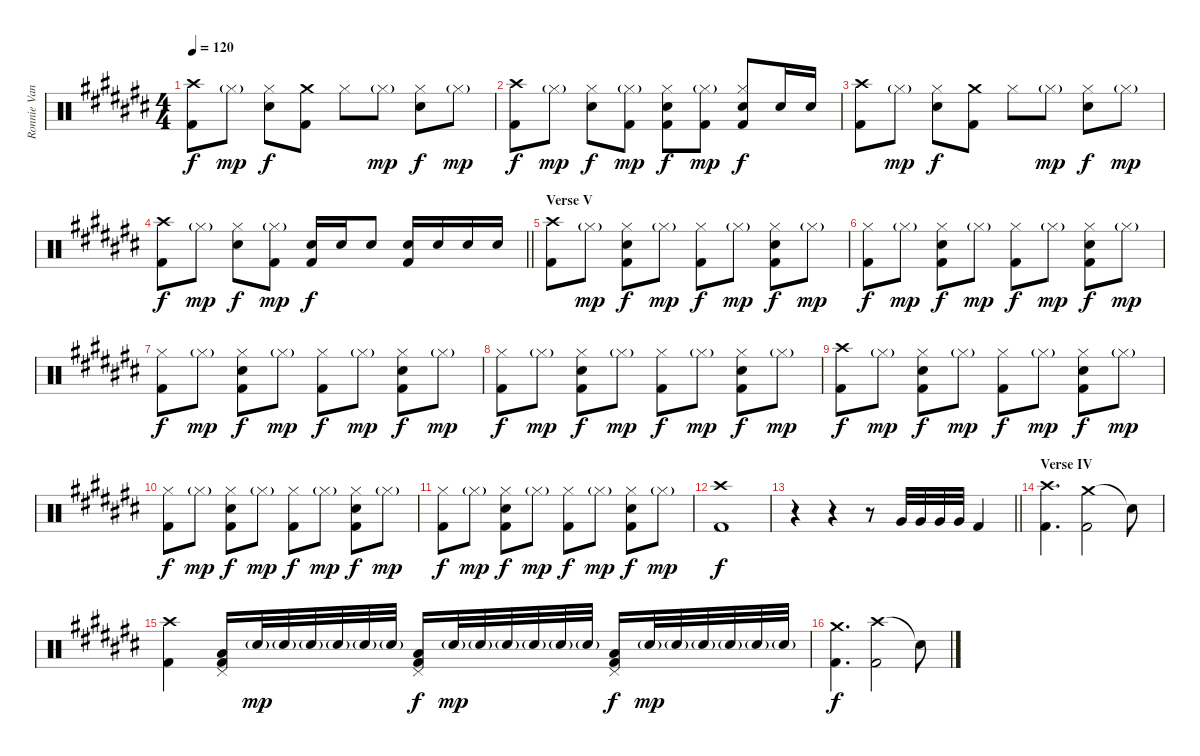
\track ("Ronnie Vannucci Jr. drums" "Ronnie Van") {instrument percussion}
\staff {score}
\articulation defaults
\ts (4 4)
\tempo 120
\clef neutral
\ks c#
("Crash high (hit)" "Kick (hit) 2").8{dy f} "Hi-Hat (closed)"{g}.8{dy mp} ("Hi-Hat (closed)" "Electric Snare (hit)").8{dy f} ("Crash medium (hit)" "Kick (hit) 2").8 "Hi-Hat (closed)".8 "Hi-Hat (closed)"{g}.8{dy mp} ("Hi-Hat (closed)" "Electric Snare (hit)").8{dy f} "Hi-Hat (closed)"{g}.8{dy mp} |
("Crash high (hit)" "Kick (hit) 2").8{dy f} "Hi-Hat (closed)"{g}.8{dy mp} ("Hi-Hat (closed)" "Electric Snare (hit)").8{dy f} ("Hi-Hat (closed)"{g} "Kick (hit) 2").8{dy mp} ("Hi-Hat (closed)" "Electric Snare (hit)" "Kick (hit) 2").8{dy f} ("Hi-Hat (closed)"{g} "Kick (hit) 2").8{dy mp} ("Hi-Hat (closed)" "Electric Snare (hit)" "Kick (hit) 2").8{dy f} "Electric Snare (hit)".16 "Electric Snare (hit)".16 |
("Crash high (hit)" "Kick (hit) 2").8 "Hi-Hat (closed)"{g}.8{dy mp} ("Hi-Hat (closed)" "Electric Snare (hit)").8{dy f} ("Crash medium (hit)" "Kick (hit) 2").8 "Hi-Hat (closed)".8 "Hi-Hat (closed)"{g}.8{dy mp} ("Hi-Hat (closed)" "Electric Snare (hit)").8{dy f} "Hi-Hat (closed)"{g}.8{dy mp} |
\barLineRight lightlight
("Crash high (hit)" "Kick (hit) 2").8{dy f} "Hi-Hat (closed)"{g}.8{dy mp} ("Hi-Hat (closed)" "Electric Snare (hit)").8{dy f} ("Hi-Hat (closed)"{g} "Kick (hit) 2").8{dy mp} ("Electric Snare (hit)" "Kick (hit) 2").16{dy f} "Electric Snare (hit)".16 "Electric Snare (hit)".8 ("Electric Snare (hit)" "Kick (hit) 2").16 "Electric Snare (hit)".16 "Electric Snare (hit)".16 "Electric Snare (hit)".16 |
\section ("" "Verse V")
("Crash high (hit)" "Kick (hit) 2").8 "Hi-Hat (closed)"{g}.8{dy mp} ("Hi-Hat (closed)" "Electric Snare (hit)" "Kick (hit) 2").8{dy f} "Hi-Hat (closed)"{g}.8{dy mp} ("Hi-Hat (closed)" "Kick (hit) 2").8{dy f} "Hi-Hat (closed)"{g}.8{dy mp} ("Hi-Hat (closed)" "Electric Snare (hit)" "Kick (hit) 2").8{dy f} "Hi-Hat (closed)"{g}.8{dy mp} |
("Hi-Hat (closed)" "Kick (hit) 2").8{dy f} "Hi-Hat (closed)"{g}.8{dy mp} ("Hi-Hat (closed)" "Electric Snare (hit)" "Kick (hit) 2").8{dy f} "Hi-Hat (closed)"{g}.8{dy mp} ("Hi-Hat (closed)" "Kick (hit) 2").8{dy f} "Hi-Hat (closed)"{g}.8{dy mp} ("Hi-Hat (closed)" "Electric Snare (hit)" "Kick (hit) 2").8{dy f} "Hi-Hat (closed)"{g}.8{dy mp} |
("Hi-Hat (closed)" "Kick (hit) 2").8{dy f} "Hi-Hat (closed)"{g}.8{dy mp} ("Hi-Hat (closed)" "Electric Snare (hit)" "Kick (hit) 2").8{dy f} "Hi-Hat (closed)"{g}.8{dy mp} ("Hi-Hat (closed)" "Kick (hit) 2").8{dy f} "Hi-Hat (closed)"{g}.8{dy mp} ("Hi-Hat (closed)" "Electric Snare (hit)" "Kick (hit) 2").8{dy f} "Hi-Hat (closed)"{g}.8{dy mp} |
("Hi-Hat (closed)" "Kick (hit) 2").8{dy f} "Hi-Hat (closed)"{g}.8{dy mp} ("Hi-Hat (closed)" "Electric Snare (hit)" "Kick (hit) 2").8{dy f} "Hi-Hat (closed)"{g}.8{dy mp} ("Hi-Hat (closed)" "Kick (hit) 2").8{dy f} "Hi-Hat (closed)"{g}.8{dy mp} ("Hi-Hat (closed)" "Electric Snare (hit)" "Kick (hit) 2").8{dy f} "Hi-Hat (closed)"{g}.8{dy mp} |
("Crash high (hit)" "Kick (hit) 2").8{dy f} "Hi-Hat (closed)"{g}.8{dy mp} ("Hi-Hat (closed)" "Electric Snare (hit)" "Kick (hit) 2").8{dy f} "Hi-Hat (closed)"{g}.8{dy mp} ("Hi-Hat (closed)" "Kick (hit) 2").8{dy f} "Hi-Hat (closed)"{g}.8{dy mp} ("Hi-Hat (closed)" "Electric Snare (hit)" "Kick (hit) 2").8{dy f} "Hi-Hat (closed)"{g}.8{dy mp} |
("Hi-Hat (closed)" "Kick (hit) 2").8{dy f} "Hi-Hat (closed)"{g}.8{dy mp} ("Hi-Hat (closed)" "Electric Snare (hit)" "Kick (hit) 2").8{dy f} "Hi-Hat (closed)"{g}.8{dy mp} ("Hi-Hat (closed)" "Kick (hit) 2").8{dy f} "Hi-Hat (closed)"{g}.8{dy mp} ("Hi-Hat (closed)" "Electric Snare (hit)" "Kick (hit) 2").8{dy f} "Hi-Hat (closed)"{g}.8{dy mp} |
("Hi-Hat (closed)" "Kick (hit) 2").8{dy f} "Hi-Hat (closed)"{g}.8{dy mp} ("Hi-Hat (closed)" "Electric Snare (hit)" "Kick (hit) 2").8{dy f} "Hi-Hat (closed)"{g}.8{dy mp} ("Hi-Hat (closed)" "Kick (hit) 2").8{dy f} "Hi-Hat (closed)"{g}.8{dy mp} ("Hi-Hat (closed)" "Electric Snare (hit)" "Kick (hit) 2").8{dy f} "Hi-Hat (closed)"{g}.8{dy mp} |
("Crash high (hit)" "Kick (hit) 2").1{dy f} |
\barLineRight lightlight
r.4 r.4 r.8 "Very Low Tom (hit)".32 "Very Low Tom (hit)".32 "Very Low Tom (hit)".32 "Very Low Tom (hit)".32 "Kick (hit) 2".4 |
\section ("" "Verse IV")
("Crash high (hit)" "Kick (hit) 2").4{d} ("Crash medium (hit)" "Kick (hit) 2").2 "Snare (hit)"{t}.8 |
("Crash high (hit)" "Kick (hit) 2").4 ("Pedal Hi-Hat (hit)" "Low Tom (hit)" "Kick (hit) 2").16 "Electric Snare (hit)"{g}.32{dy mp} "Electric Snare (hit)"{g}.32 "Electric Snare (hit)"{g}.32 "Electric Snare (hit)"{g}.32 "Electric Snare (hit)"{g}.32 "Electric Snare (hit)"{g}.32 ("Pedal Hi-Hat (hit)" "Low Tom (hit)" "Kick (hit) 2").16{dy f} "Electric Snare (hit)"{g}.32{dy mp} "Electric Snare (hit)"{g}.32 "Electric Snare (hit)"{g}.32 "Electric Snare (hit)"{g}.32 "Electric Snare (hit)"{g}.32 "Electric Snare (hit)"{g}.32 ("Pedal Hi-Hat (hit)" "Low Tom (hit)" "Kick (hit) 2").16{dy f} "Electric Snare (hit)"{g}.32{dy mp} "Electric Snare (hit)"{g}.32 "Electric Snare (hit)"{g}.32 "Electric Snare (hit)"{g}.32 "Electric Snare (hit)"{g}.32 "Electric Snare (hit)"{g}.32 |
("Crash medium (hit)" "Kick (hit) 2").4{d dy f} ("Crash high (hit)" "Kick (hit) 2").2 "Snare (hit)"{t}.8
